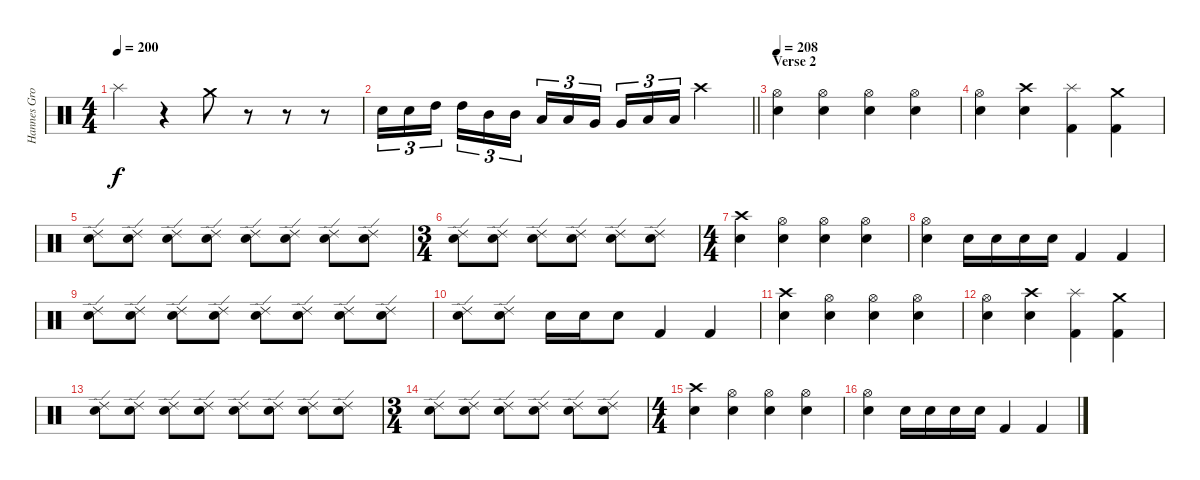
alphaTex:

\track ("Hannes Grossmann" "Hannes Gro") {instrument percussion}
\staff {score}
\articulation defaults
\ts (4 4)
\tempo 200
\clef neutral
\ks c "Splash (hit)".4{dy f}
r.4 "Crash medium (hit)".8 r.8 r.8 r.8 |
\barLineRight lightlight "Electric Snare (hit)".16{tu (3 2)} "Electric Snare (hit)".16{tu (3 2)} "High Tom (hit)".16{tu (3 2) beam splitsecondary} "High Tom (hit)".16{tu (3 2)} "Mid Tom (hit)".16{tu (3 2)} "Mid Tom (hit)".16{tu (3 2)} "Low Tom (hit)".16{tu (3 2)} "Low Tom (hit)".16{tu (3 2)} "Very Low Tom (hit)".16{tu (3 2) beam splitsecondary} "Very Low Tom (hit)".16{tu (3 2)} "Low Floor Tom (hit)".16{tu (3 2)} "Low Floor Tom (hit)".16{tu (3 2)} "Crash high (hit)".2
|
\section ("" "Verse 2")
\tempo 208
("Hi-Hat (open)" "Electric Snare (hit)").4 ("Hi-Hat (open)" "Electric Snare (hit)").4 ("Hi-Hat (open)" "Electric Snare (hit)").4 ("Hi-Hat (open)" "Electric Snare (hit)").4 |
("Hi-Hat (open)" "Electric Snare (hit)").4 ("Crash high (hit)" "Electric Snare (hit)").4 ("Splash (hit)" "Kick (hit) 2").4 ("Crash medium (hit)" "Kick (hit) 2").4 |
("Ride (edge) 2" "Electric Snare (hit)").8 ("Ride (edge) 2" "Electric Snare (hit)").8 ("Ride (edge) 2" "Electric Snare (hit)").8 ("Ride (edge) 2" "Electric Snare (hit)").8 ("Ride (edge) 2" "Electric Snare (hit)").8 ("Ride (edge) 2" "Electric Snare (hit)").8 ("Ride (edge) 2" "Electric Snare (hit)").8 ("Ride (edge) 2" "Electric Snare (hit)").8 |
\ts (3 4)
("Ride (edge) 2" "Electric Snare (hit)").8 ("Ride (edge) 2" "Electric Snare (hit)").8 ("Ride (edge) 2" "Electric Snare (hit)").8 ("Ride (edge) 2" "Electric Snare (hit)").8 ("Ride (edge) 2" "Electric Snare (hit)").8 ("Ride (edge) 2" "Electric Snare (hit)").8 |
\ts (4 4)
("Crash high (hit)" "Electric Snare (hit)").4 ("Hi-Hat (open)" "Electric Snare (hit)").4 ("Hi-Hat (open)" "Electric Snare (hit)").4 ("Hi-Hat (open)" "Electric Snare (hit)").4 |
("Hi-Hat (open)" "Electric Snare (hit)").4 "Electric Snare (hit)".16 "Electric Snare (hit)".16 "Electric Snare (hit)".16 "Electric Snare (hit)".16 "Kick (hit) 2".4 "Kick (hit) 2".4 |
("Ride (edge) 2" "Electric Snare (hit)").8 ("Ride (edge) 2" "Electric Snare (hit)").8 ("Ride (edge) 2" "Electric Snare (hit)").8 ("Ride (edge) 2" "Electric Snare (hit)").8 ("Ride (edge) 2" "Electric Snare (hit)").8 ("Ride (edge) 2" "Electric Snare (hit)").8 ("Ride (edge) 2" "Electric Snare (hit)").8 ("Ride (edge) 2" "Electric Snare (hit)").8 |
("Ride (edge) 2" "Electric Snare (hit)").8 ("Ride (edge) 2" "Electric Snare (hit)").8 "Electric Snare (hit)".16 "Electric Snare (hit)".16 "Electric Snare (hit)".8 "Kick (hit) 2".4 "Kick (hit) 2".4 |
("Crash high (hit)" "Electric Snare (hit)").4 ("Hi-Hat (open)" "Electric Snare (hit)").4 ("Hi-Hat (open)" "Electric Snare (hit)").4 ("Hi-Hat (open)" "Electric Snare (hit)").4 |
("Hi-Hat (open)" "Electric Snare (hit)").4 ("Crash high (hit)" "Electric Snare (hit)").4 ("Splash (hit)" "Kick (hit) 2").4 ("Crash medium (hit)" "Kick (hit) 2").4 |
("Ride (edge) 2" "Electric Snare (hit)").8 ("Ride (edge) 2" "Electric Snare (hit)").8 ("Ride (edge) 2" "Electric Snare (hit)").8 ("Ride (edge) 2" "Electric Snare (hit)").8 ("Ride (edge) 2" "Electric Snare (hit)").8 ("Ride (edge) 2" "Electric Snare (hit)").8 ("Ride (edge) 2" "Electric Snare (hit)").8 ("Ride (edge) 2" "Electric Snare (hit)").8 |
\ts (3 4)
("Ride (edge) 2" "Electric Snare (hit)").8 ("Ride (edge) 2" "Electric Snare (hit)").8 ("Ride (edge) 2" "Electric Snare (hit)").8 ("Ride (edge) 2" "Electric Snare (hit)").8 ("Ride (edge) 2" "Electric Snare (hit)").8 ("Ride (edge) 2" "Electric Snare (hit)").8 |
\ts (4 4)
("Crash high (hit)" "Electric Snare (hit)").4 ("Hi-Hat (open)" "Electric Snare (hit)").4 ("Hi-Hat (open)" "Electric Snare (hit)").4 ("Hi-Hat (open)" "Electric Snare (hit)").4 |
("Hi-Hat (open)" "Electric Snare (hit)").4 "Electric Snare (hit)".16 "Electric Snare (hit)".16 "Electric Snare (hit)".16 "Electric Snare (hit)".16 "Kick (hit) 2".4 "Kick (hit) 2".4
